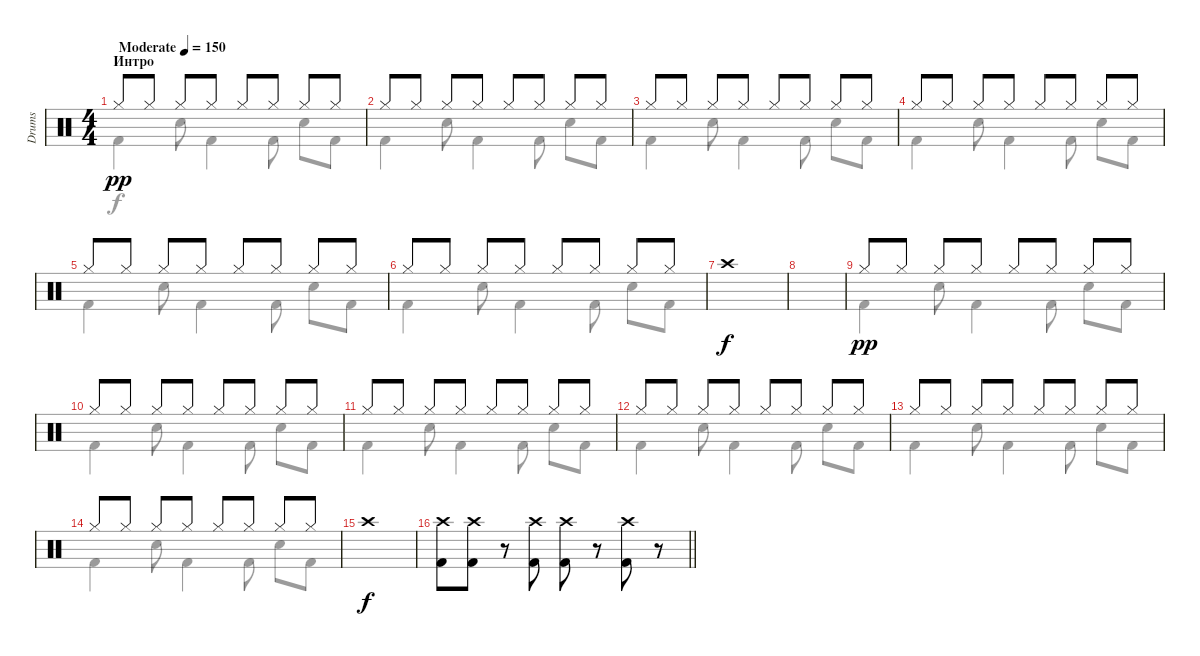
\track ("Drums" "Drums") {instrument percussion}
\staff {score}
\articulation defaults
\voice
\ts (4 4)
\section ("" "Интро")
\tempo (150 "Moderate")
\clef neutral
\ks c "Hi-Hat (closed)".8{dy pp} "Hi-Hat (closed)".8 "Hi-Hat (closed)".8 "Hi-Hat (closed)".8 "Hi-Hat (closed)".8 "Hi-Hat (closed)".8 "Hi-Hat (closed)".8 "Hi-Hat (closed)".8
|
"Hi-Hat (closed)".8 "Hi-Hat (closed)".8 "Hi-Hat (closed)".8 "Hi-Hat (closed)".8 "Hi-Hat (closed)".8 "Hi-Hat (closed)".8 "Hi-Hat (closed)".8 "Hi-Hat (closed)".8 |
"Hi-Hat (closed)".8 "Hi-Hat (closed)".8 "Hi-Hat (closed)".8 "Hi-Hat (closed)".8 "Hi-Hat (closed)".8 "Hi-Hat (closed)".8 "Hi-Hat (closed)".8 "Hi-Hat (closed)".8 |
"Hi-Hat (closed)".8 "Hi-Hat (closed)".8 "Hi-Hat (closed)".8 "Hi-Hat (closed)".8 "Hi-Hat (closed)".8 "Hi-Hat (closed)".8 "Hi-Hat (closed)".8 "Hi-Hat (closed)".8 |
"Hi-Hat (closed)".8 "Hi-Hat (closed)".8 "Hi-Hat (closed)".8 "Hi-Hat (closed)".8 "Hi-Hat (closed)".8 "Hi-Hat (closed)".8 "Hi-Hat (closed)".8 "Hi-Hat (closed)".8 |
"Hi-Hat (closed)".8 "Hi-Hat (closed)".8 "Hi-Hat (closed)".8 "Hi-Hat (closed)".8 "Hi-Hat (closed)".8 "Hi-Hat (closed)".8 "Hi-Hat (closed)".8 "Hi-Hat (closed)".8 |
"Crash high (hit)".1{dy f} |
|
"Hi-Hat (closed)".8{dy pp} "Hi-Hat (closed)".8 "Hi-Hat (closed)".8 "Hi-Hat (closed)".8 "Hi-Hat (closed)".8 "Hi-Hat (closed)".8 "Hi-Hat (closed)".8 "Hi-Hat (closed)".8 |
"Hi-Hat (closed)".8 "Hi-Hat (closed)".8 "Hi-Hat (closed)".8 "Hi-Hat (closed)".8 "Hi-Hat (closed)".8 "Hi-Hat (closed)".8 "Hi-Hat (closed)".8 "Hi-Hat (closed)".8 |
"Hi-Hat (closed)".8 "Hi-Hat (closed)".8 "Hi-Hat (closed)".8 "Hi-Hat (closed)".8 "Hi-Hat (closed)".8 "Hi-Hat (closed)".8 "Hi-Hat (closed)".8 "Hi-Hat (closed)".8 |
"Hi-Hat (closed)".8 "Hi-Hat (closed)".8 "Hi-Hat (closed)".8 "Hi-Hat (closed)".8 "Hi-Hat (closed)".8 "Hi-Hat (closed)".8 "Hi-Hat (closed)".8 "Hi-Hat (closed)".8 |
"Hi-Hat (closed)".8 "Hi-Hat (closed)".8 "Hi-Hat (closed)".8 "Hi-Hat (closed)".8 "Hi-Hat (closed)".8 "Hi-Hat (closed)".8 "Hi-Hat (closed)".8 "Hi-Hat (closed)".8 |
"Hi-Hat (closed)".8 "Hi-Hat (closed)".8 "Hi-Hat (closed)".8 "Hi-Hat (closed)".8 "Hi-Hat (closed)".8 "Hi-Hat (closed)".8 "Hi-Hat (closed)".8 "Hi-Hat (closed)".8 |
"Crash high (hit)".1{dy f} |
\barLineRight lightlight
("Crash high (hit)" "Kick (hit) 2").8 ("Crash high (hit)" "Kick (hit) 2").8 r.8 ("Crash high (hit)" "Kick (hit) 2").8 ("Crash high (hit)" "Kick (hit) 2").8 r.8 ("Crash high (hit)" "Kick (hit) 2").8 r.8
\voice
\clef neutral
\ottava regular
\simile none
\ks c "Kick (hit) 2".4{dy f} "Electric Snare (hit)".8 "Kick (hit) 2".4 "Kick (hit) 2".8 "Electric Snare (hit)".8 "Kick (hit) 2".8
|
"Kick (hit) 2".4 "Electric Snare (hit)".8 "Kick (hit) 2".4 "Kick (hit) 2".8 "Electric Snare (hit)".8 "Kick (hit) 2".8 |
"Kick (hit) 2".4 "Electric Snare (hit)".8 "Kick (hit) 2".4 "Kick (hit) 2".8 "Electric Snare (hit)".8 "Kick (hit) 2".8 |
"Kick (hit) 2".4 "Electric Snare (hit)".8 "Kick (hit) 2".4 "Kick (hit) 2".8 "Electric Snare (hit)".8 "Kick (hit) 2".8 |
"Kick (hit) 2".4 "Electric Snare (hit)".8 "Kick (hit) 2".4 "Kick (hit) 2".8 "Electric Snare (hit)".8 "Kick (hit) 2".8 |
"Kick (hit) 2".4 "Electric Snare (hit)".8 "Kick (hit) 2".4 "Kick (hit) 2".8 "Electric Snare (hit)".8 "Kick (hit) 2".8 |
|
|
"Kick (hit) 2".4 "Electric Snare (hit)".8 "Kick (hit) 2".4 "Kick (hit) 2".8 "Electric Snare (hit)".8 "Kick (hit) 2".8 |
"Kick (hit) 2".4 "Electric Snare (hit)".8 "Kick (hit) 2".4 "Kick (hit) 2".8 "Electric Snare (hit)".8 "Kick (hit) 2".8 |
"Kick (hit) 2".4 "Electric Snare (hit)".8 "Kick (hit) 2".4 "Kick (hit) 2".8 "Electric Snare (hit)".8 "Kick (hit) 2".8 |
"Kick (hit) 2".4 "Electric Snare (hit)".8 "Kick (hit) 2".4 "Kick (hit) 2".8 "Electric Snare (hit)".8 "Kick (hit) 2".8 |
"Kick (hit) 2".4 "Electric Snare (hit)".8 "Kick (hit) 2".4 "Kick (hit) 2".8 "Electric Snare (hit)".8 "Kick (hit) 2".8 |
"Kick (hit) 2".4 "Electric Snare (hit)".8 "Kick (hit) 2".4 "Kick (hit) 2".8 "Electric Snare (hit)".8 "Kick (hit) 2".8 |
|
\barLineRight lightlight
